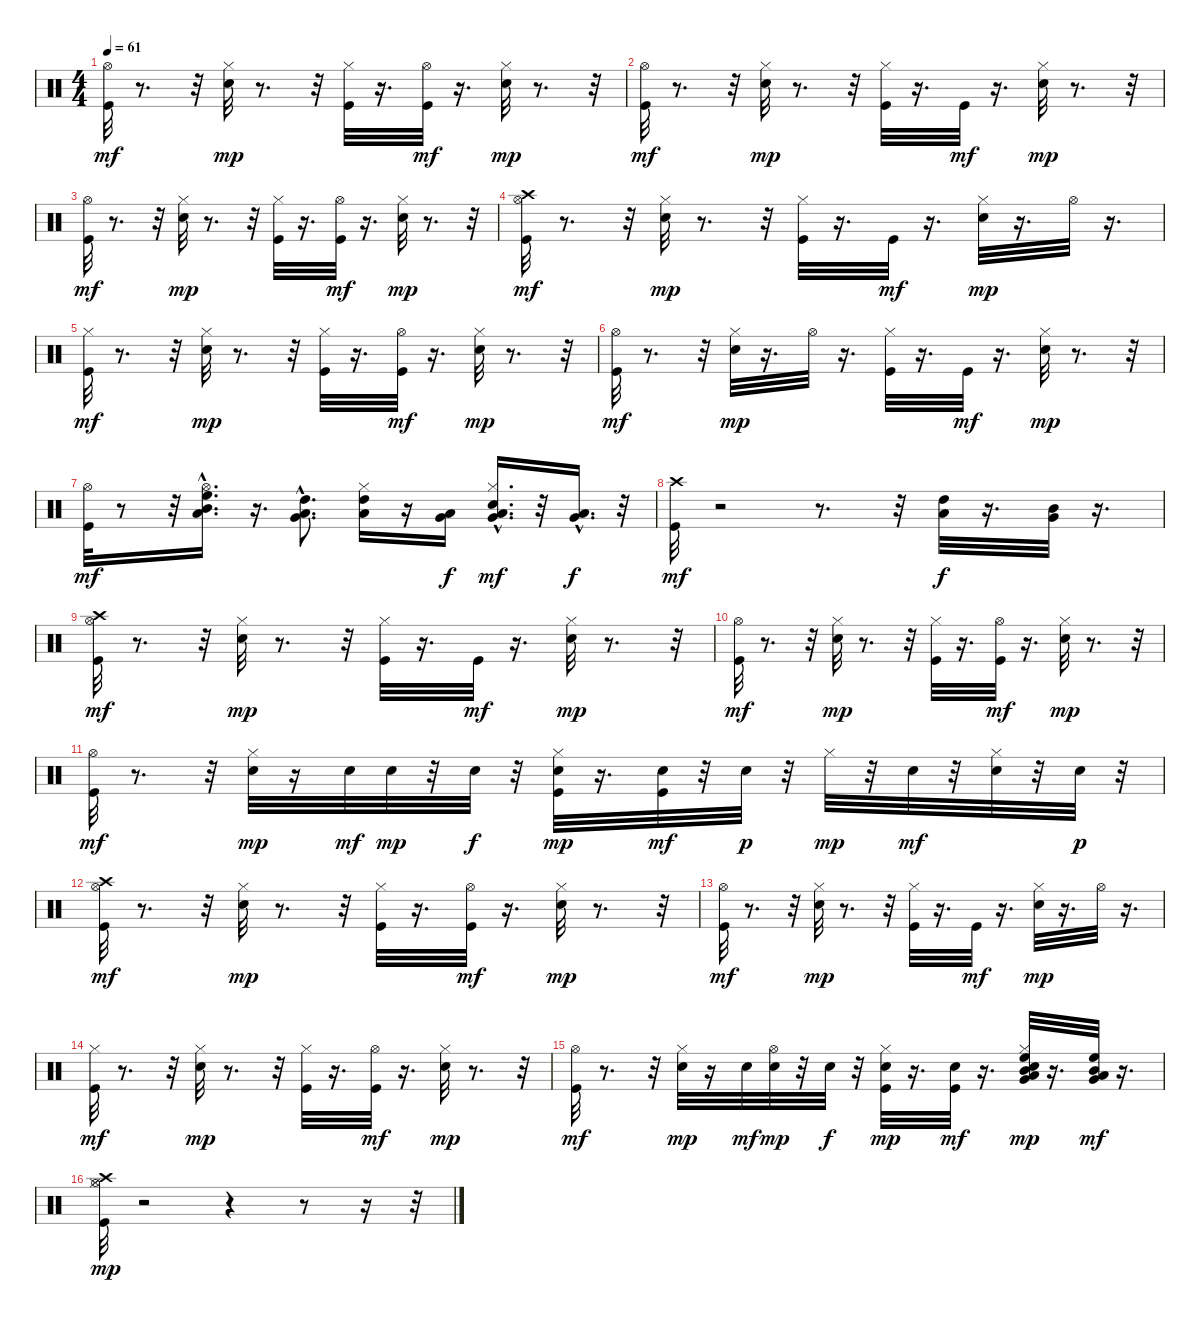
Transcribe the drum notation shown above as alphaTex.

\track "" {instrument percussion}
\staff {score}
\articulation defaults
\ts (4 4)
\tempo 61
\clef neutral
\ks c
("Hi-Hat (open)" "Kick (hit)").32{dy mf} r.8{d} r.32 ("Electric Snare (hit)" "Hi-Hat (closed)").32{dy mp} r.8{d} r.32 ("Kick (hit)" "Hi-Hat (closed)").32 r.16{d} ("Hi-Hat (open)" "Kick (hit)").32{dy mf} r.16{d} ("Electric Snare (hit)" "Hi-Hat (closed)").32{dy mp} r.8{d} r.32 |
("Hi-Hat (open)" "Kick (hit)").32{dy mf} r.8{d} r.32 ("Electric Snare (hit)" "Hi-Hat (closed)").32{dy mp} r.8{d} r.32 ("Kick (hit)" "Hi-Hat (closed)").32 r.16{d} "Kick (hit)".32{dy mf} r.16{d} ("Electric Snare (hit)" "Hi-Hat (closed)").32{dy mp} r.8{d} r.32 |
("Hi-Hat (open)" "Kick (hit)").32{dy mf} r.8{d} r.32 ("Electric Snare (hit)" "Hi-Hat (closed)").32{dy mp} r.8{d} r.32 ("Kick (hit)" "Hi-Hat (closed)").32 r.16{d} ("Hi-Hat (open)" "Kick (hit)").32{dy mf} r.16{d} ("Electric Snare (hit)" "Hi-Hat (closed)").32{dy mp} r.8{d} r.32 |
("Crash high (hit)" "Hi-Hat (open)" "Kick (hit)").32{dy mf} r.8{d} r.32 ("Electric Snare (hit)" "Hi-Hat (closed)").32{dy mp} r.8{d} r.32 ("Kick (hit)" "Hi-Hat (closed)").32 r.16{d} "Kick (hit)".32{dy mf} r.16{d} ("Electric Snare (hit)" "Hi-Hat (closed)").32{dy mp} r.16{d} "Hi-Hat (open)".32 r.16{d} |
("Hi-Hat (closed)" "Kick (hit)").32{dy mf} r.8{d} r.32 ("Electric Snare (hit)" "Hi-Hat (closed)").32{dy mp} r.8{d} r.32 ("Kick (hit)" "Hi-Hat (closed)").32 r.16{d} ("Hi-Hat (open)" "Kick (hit)").32{dy mf} r.16{d} ("Electric Snare (hit)" "Hi-Hat (closed)").32{dy mp} r.8{d} r.32 |
("Hi-Hat (open)" "Kick (hit)").32{dy mf} r.8{d} r.32 ("Electric Snare (hit)" "Hi-Hat (closed)").32{dy mp} r.16{d} "Hi-Hat (open)".32 r.16{d} ("Kick (hit)" "Hi-Hat (closed)").32 r.16{d} "Kick (hit)".32{dy mf} r.16{d} ("Electric Snare (hit)" "Hi-Hat (closed)").32{dy mp} r.8{d} r.32 |
("Hi-Hat (open)" "Kick (hit)").32{dy mf} r.8 r.32 ("Hi-Hat (open)" "Mid Tom (hit)"{hac} "High Floor Tom (hit)"{hac} "Low Tom (hit)"{hac}).16{d} r.16{d} ("Low Tom (hit)"{hac} "Very Low Tom (hit)" "High Tom (hit)"{hac}).8{d} ("Hi-Hat (closed)" "Low Tom (hit)" "High Tom (hit)").16 r.16 ("Very Low Tom (hit)" "Low Tom (hit)").16{dy f} ("Very Low Tom (hit)"{hac} "Low Tom (hit)"{hac} "Hi-Hat (closed)" "Electric Snare (hit)").16{d dy mf} r.32 ("Low Floor Tom (hit)"{hac} "Very Low Tom (hit)").16{d dy f} r.32 |
("Crash high (hit)" "Kick (hit)").32{dy mf} r.2 r.8{d} r.32 ("Low Tom (hit)" "High Tom (hit)").32{dy f} r.16{d} ("Very Low Tom (hit)" "Mid Tom (hit)").32 r.16{d} |
("Crash high (hit)" "Hi-Hat (open)" "Kick (hit)").32{dy mf} r.8{d} r.32 ("Electric Snare (hit)" "Hi-Hat (closed)").32{dy mp} r.8{d} r.32 ("Kick (hit)" "Hi-Hat (closed)").32 r.16{d} "Kick (hit)".32{dy mf} r.16{d} ("Electric Snare (hit)" "Hi-Hat (closed)").32{dy mp} r.8{d} r.32 |
("Hi-Hat (open)" "Kick (hit)").32{dy mf} r.8{d} r.32 ("Electric Snare (hit)" "Hi-Hat (closed)").32{dy mp} r.8{d} r.32 ("Kick (hit)" "Hi-Hat (closed)").32 r.16{d} ("Hi-Hat (open)" "Kick (hit)").32{dy mf} r.16{d} ("Electric Snare (hit)" "Hi-Hat (closed)").32{dy mp} r.8{d} r.32 |
("Hi-Hat (open)" "Kick (hit)").32{dy mf} r.8{d} r.32 ("Electric Snare (hit)" "Hi-Hat (closed)").32{dy mp} r.16 "Electric Snare (hit)".32{dy mf} "Electric Snare (hit)".32{dy mp} r.32 "Electric Snare (hit)".32{dy f} r.32 ("Electric Snare (hit)" "Kick (hit)" "Hi-Hat (closed)").32{dy mp} r.16{d} ("Electric Snare (hit)" "Kick (hit)").32{dy mf} r.32 "Electric Snare (hit)".32{dy p} r.32 "Hi-Hat (closed)".32{dy mp} r.32 "Electric Snare (hit)".32{dy mf} r.32 ("Hi-Hat (closed)" "Electric Snare (hit)").32 r.32 "Electric Snare (hit)".32{dy p} r.32 |
("Hi-Hat (open)" "Crash high (hit)" "Kick (hit)").32{dy mf} r.8{d} r.32 ("Electric Snare (hit)" "Hi-Hat (closed)").32{dy mp} r.8{d} r.32 ("Kick (hit)" "Hi-Hat (closed)").32 r.16{d} ("Hi-Hat (open)" "Kick (hit)").32{dy mf} r.16{d} ("Electric Snare (hit)" "Hi-Hat (closed)").32{dy mp} r.8{d} r.32 |
("Hi-Hat (open)" "Kick (hit)").32{dy mf} r.8{d} r.32 ("Electric Snare (hit)" "Hi-Hat (closed)").32{dy mp} r.8{d} r.32 ("Kick (hit)" "Hi-Hat (closed)").32 r.16{d} "Kick (hit)".32{dy mf} r.16{d} ("Electric Snare (hit)" "Hi-Hat (closed)").32{dy mp} r.16{d} "Hi-Hat (open)".32 r.16{d} |
("Hi-Hat (closed)" "Kick (hit)").32{dy mf} r.8{d} r.32 ("Electric Snare (hit)" "Hi-Hat (closed)").32{dy mp} r.8{d} r.32 ("Kick (hit)" "Hi-Hat (closed)").32 r.16{d} ("Hi-Hat (open)" "Kick (hit)").32{dy mf} r.16{d} ("Electric Snare (hit)" "Hi-Hat (closed)").32{dy mp} r.8{d} r.32 |
("Hi-Hat (open)" "Kick (hit)").32{dy mf} r.8{d} r.32 ("Electric Snare (hit)" "Hi-Hat (closed)").32{dy mp} r.16 "Electric Snare (hit)".32{dy mf} ("Hi-Hat (open)" "Electric Snare (hit)").32{dy mp} r.32 "Electric Snare (hit)".32{dy f} r.32 ("Electric Snare (hit)" "Kick (hit)" "Hi-Hat (closed)").32{dy mp} r.16{d} ("Electric Snare (hit)" "Kick (hit)").32{dy mf} r.16{d} ("High Floor Tom (hit)" "Low Tom (hit)" "Electric Snare (hit)" "Very Low Tom (hit)" "Mid Tom (hit)" "Hi-Hat (closed)").32{dy mp} r.16{d} ("Low Floor Tom (hit)" "Very Low Tom (hit)" "High Floor Tom (hit)" "Mid Tom (hit)").32{dy mf} r.16{d} |
("Kick (hit)" "Hi-Hat (closed)" "Hi-Hat (open)" "Crash high (hit)").32{dy mp} r.2 r.4 r.8 r.16 r.32
